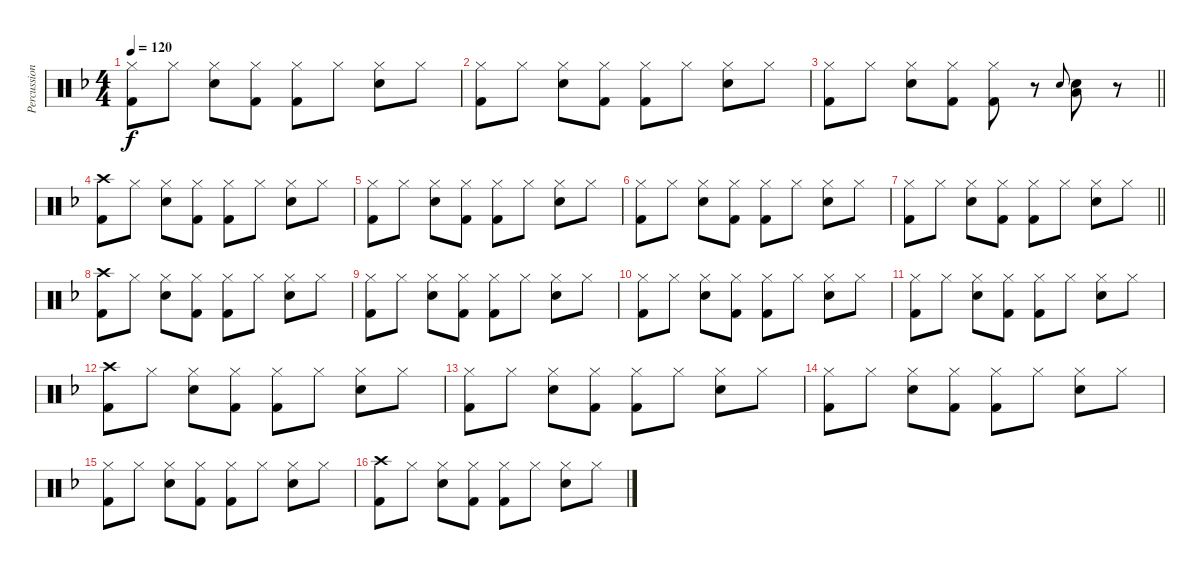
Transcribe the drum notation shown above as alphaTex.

\track ("Percussion" "Percussion") {instrument percussion}
\staff {score}
\articulation defaults
\ts (4 4)
\tempo 120
\clef neutral
\ks f
("Hi-Hat (closed)" "Kick (hit) 2").8{dy f} "Hi-Hat (closed)".8 ("Hi-Hat (closed)" "Snare (hit) 2").8 ("Hi-Hat (closed)" "Kick (hit) 2").8 ("Hi-Hat (closed)" "Kick (hit) 2").8 "Hi-Hat (closed)".8 ("Hi-Hat (closed)" "Snare (hit) 2").8 "Hi-Hat (closed)".8 |
("Hi-Hat (closed)" "Kick (hit) 2").8 "Hi-Hat (closed)".8 ("Hi-Hat (closed)" "Snare (hit) 2").8 ("Hi-Hat (closed)" "Kick (hit) 2").8 ("Hi-Hat (closed)" "Kick (hit) 2").8 "Hi-Hat (closed)".8 ("Hi-Hat (closed)" "Snare (hit) 2").8 "Hi-Hat (closed)".8 |
\barLineRight lightlight
("Hi-Hat (closed)" "Kick (hit) 2").8 "Hi-Hat (closed)".8 ("Hi-Hat (closed)" "Snare (hit) 2").8 ("Hi-Hat (closed)" "Kick (hit) 2").8 ("Hi-Hat (closed)" "Kick (hit) 2").8 r.8 "Snare (hit) 2".8{gr onbeat} ("Snare (hit) 2" "Low Tom (hit)").8 r.8 |
("Crash high (hit)" "Kick (hit) 2").8 "Hi-Hat (closed)".8 ("Hi-Hat (closed)" "Snare (hit) 2").8 ("Hi-Hat (closed)" "Kick (hit) 2").8 ("Hi-Hat (closed)" "Kick (hit) 2").8 "Hi-Hat (closed)".8 ("Hi-Hat (closed)" "Snare (hit) 2").8 "Hi-Hat (closed)".8 |
("Hi-Hat (closed)" "Kick (hit) 2").8 "Hi-Hat (closed)".8 ("Hi-Hat (closed)" "Snare (hit) 2").8 ("Hi-Hat (closed)" "Kick (hit) 2").8 ("Hi-Hat (closed)" "Kick (hit) 2").8 "Hi-Hat (closed)".8 ("Hi-Hat (closed)" "Snare (hit) 2").8 "Hi-Hat (closed)".8 |
("Hi-Hat (closed)" "Kick (hit) 2").8 "Hi-Hat (closed)".8 ("Hi-Hat (closed)" "Snare (hit) 2").8 ("Hi-Hat (closed)" "Kick (hit) 2").8 ("Hi-Hat (closed)" "Kick (hit) 2").8 "Hi-Hat (closed)".8 ("Hi-Hat (closed)" "Snare (hit) 2").8 "Hi-Hat (closed)".8 |
\barLineRight lightlight
("Hi-Hat (closed)" "Kick (hit) 2").8 "Hi-Hat (closed)".8 ("Hi-Hat (closed)" "Snare (hit) 2").8 ("Hi-Hat (closed)" "Kick (hit) 2").8 ("Hi-Hat (closed)" "Kick (hit) 2").8 "Hi-Hat (closed)".8 ("Hi-Hat (closed)" "Snare (hit) 2").8 "Hi-Hat (closed)".8 |
("Crash high (hit)" "Kick (hit) 2").8 "Hi-Hat (closed)".8 ("Hi-Hat (closed)" "Snare (hit) 2").8 ("Hi-Hat (closed)" "Kick (hit) 2").8 ("Hi-Hat (closed)" "Kick (hit) 2").8 "Hi-Hat (closed)".8 ("Hi-Hat (closed)" "Snare (hit) 2").8 "Hi-Hat (closed)".8 |
("Hi-Hat (closed)" "Kick (hit) 2").8 "Hi-Hat (closed)".8 ("Hi-Hat (closed)" "Snare (hit) 2").8 ("Hi-Hat (closed)" "Kick (hit) 2").8 ("Hi-Hat (closed)" "Kick (hit) 2").8 "Hi-Hat (closed)".8 ("Hi-Hat (closed)" "Snare (hit) 2").8 "Hi-Hat (closed)".8 |
("Hi-Hat (closed)" "Kick (hit) 2").8 "Hi-Hat (closed)".8 ("Hi-Hat (closed)" "Snare (hit) 2").8 ("Hi-Hat (closed)" "Kick (hit) 2").8 ("Hi-Hat (closed)" "Kick (hit) 2").8 "Hi-Hat (closed)".8 ("Hi-Hat (closed)" "Snare (hit) 2").8 "Hi-Hat (closed)".8 |
("Hi-Hat (closed)" "Kick (hit) 2").8 "Hi-Hat (closed)".8 ("Hi-Hat (closed)" "Snare (hit) 2").8 ("Hi-Hat (closed)" "Kick (hit) 2").8 ("Hi-Hat (closed)" "Kick (hit) 2").8 "Hi-Hat (closed)".8 ("Hi-Hat (closed)" "Snare (hit) 2").8 "Hi-Hat (closed)".8 |
("Crash high (hit)" "Kick (hit) 2").8 "Hi-Hat (closed)".8 ("Hi-Hat (closed)" "Snare (hit) 2").8 ("Hi-Hat (closed)" "Kick (hit) 2").8 ("Hi-Hat (closed)" "Kick (hit) 2").8 "Hi-Hat (closed)".8 ("Hi-Hat (closed)" "Snare (hit) 2").8 "Hi-Hat (closed)".8 |
("Hi-Hat (closed)" "Kick (hit) 2").8 "Hi-Hat (closed)".8 ("Hi-Hat (closed)" "Snare (hit) 2").8 ("Hi-Hat (closed)" "Kick (hit) 2").8 ("Hi-Hat (closed)" "Kick (hit) 2").8 "Hi-Hat (closed)".8 ("Hi-Hat (closed)" "Snare (hit) 2").8 "Hi-Hat (closed)".8 |
("Hi-Hat (closed)" "Kick (hit) 2").8 "Hi-Hat (closed)".8 ("Hi-Hat (closed)" "Snare (hit) 2").8 ("Hi-Hat (closed)" "Kick (hit) 2").8 ("Hi-Hat (closed)" "Kick (hit) 2").8 "Hi-Hat (closed)".8 ("Hi-Hat (closed)" "Snare (hit) 2").8 "Hi-Hat (closed)".8 |
("Hi-Hat (closed)" "Kick (hit) 2").8 "Hi-Hat (closed)".8 ("Hi-Hat (closed)" "Snare (hit) 2").8 ("Hi-Hat (closed)" "Kick (hit) 2").8 ("Hi-Hat (closed)" "Kick (hit) 2").8 "Hi-Hat (closed)".8 ("Hi-Hat (closed)" "Snare (hit) 2").8 "Hi-Hat (closed)".8 |
("Crash high (hit)" "Kick (hit) 2").8 "Hi-Hat (closed)".8 ("Hi-Hat (closed)" "Snare (hit) 2").8 ("Hi-Hat (closed)" "Kick (hit) 2").8 ("Hi-Hat (closed)" "Kick (hit) 2").8 "Hi-Hat (closed)".8 ("Hi-Hat (closed)" "Snare (hit) 2").8 "Hi-Hat (closed)".8
